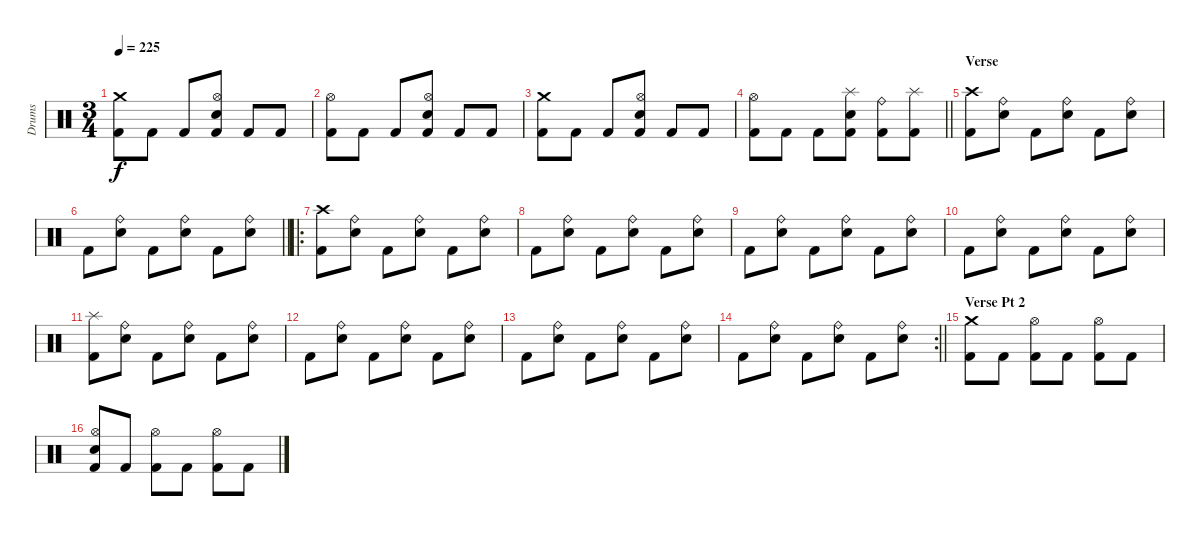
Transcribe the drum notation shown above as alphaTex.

\track ("Drums" "Drums") {instrument percussion}
\staff {score}
\articulation defaults
\ts (3 4)
\tempo 225
\clef neutral
\ks c
("Crash medium (hit)" "Kick (hit) 2").8{dy f} "Kick (hit) 2".8 "Kick (hit) 2".8 ("Hi-Hat (open)" "Electric Snare (hit)" "Kick (hit) 2").8 "Kick (hit) 2".8 "Kick (hit) 2".8 |
("Hi-Hat (open)" "Kick (hit) 2").8 "Kick (hit) 2".8 "Kick (hit) 2".8 ("Hi-Hat (open)" "Electric Snare (hit)" "Kick (hit) 2").8 "Kick (hit) 2".8 "Kick (hit) 2".8 |
("Crash medium (hit)" "Kick (hit) 2").8 "Kick (hit) 2".8 "Kick (hit) 2".8 ("Hi-Hat (open)" "Electric Snare (hit)" "Kick (hit) 2").8 "Kick (hit) 2".8 "Kick (hit) 2".8 |
\barLineRight lightlight
("Hi-Hat (open)" "Kick (hit) 2").8 "Kick (hit) 2".8 "Kick (hit) 2".8 ("Splash (hit)" "Electric Snare (hit)" "Kick (hit) 2").8 ("Ride (bell)" "Kick (hit) 2").8 ("Splash (hit)" "Kick (hit) 2").8 |
\section ("" "Verse")
("Crash high (hit)" "Kick (hit) 2").8 ("Ride (bell)" "Electric Snare (hit)").8 "Kick (hit) 2".8 ("Ride (bell)" "Electric Snare (hit)").8 "Kick (hit) 2".8 ("Ride (bell)" "Electric Snare (hit)").8 |
\barLineRight lightlight "Kick (hit) 2".8
("Ride (bell)" "Electric Snare (hit)").8 "Kick (hit) 2".8 ("Ride (bell)" "Electric Snare (hit)").8 "Kick (hit) 2".8 ("Ride (bell)" "Electric Snare (hit)").8 |
\ro
("Crash high (hit)" "Kick (hit) 2").8 ("Ride (bell)" "Electric Snare (hit)").8 "Kick (hit) 2".8 ("Ride (bell)" "Electric Snare (hit)").8 "Kick (hit) 2".8 ("Ride (bell)" "Electric Snare (hit)").8 |
"Kick (hit) 2".8 ("Ride (bell)" "Electric Snare (hit)").8 "Kick (hit) 2".8 ("Ride (bell)" "Electric Snare (hit)").8 "Kick (hit) 2".8 ("Ride (bell)" "Electric Snare (hit)").8 |
"Kick (hit) 2".8 ("Ride (bell)" "Electric Snare (hit)").8 "Kick (hit) 2".8 ("Ride (bell)" "Electric Snare (hit)").8 "Kick (hit) 2".8 ("Ride (bell)" "Electric Snare (hit)").8 |
"Kick (hit) 2".8 ("Ride (bell)" "Electric Snare (hit)").8 "Kick (hit) 2".8 ("Ride (bell)" "Electric Snare (hit)").8 "Kick (hit) 2".8 ("Ride (bell)" "Electric Snare (hit)").8 |
("Splash (hit)" "Kick (hit) 2").8 ("Ride (bell)" "Electric Snare (hit)").8 "Kick (hit) 2".8 ("Ride (bell)" "Electric Snare (hit)").8 "Kick (hit) 2".8 ("Ride (bell)" "Electric Snare (hit)").8 |
"Kick (hit) 2".8 ("Ride (bell)" "Electric Snare (hit)").8 "Kick (hit) 2".8 ("Ride (bell)" "Electric Snare (hit)").8 "Kick (hit) 2".8 ("Ride (bell)" "Electric Snare (hit)").8 |
"Kick (hit) 2".8 ("Ride (bell)" "Electric Snare (hit)").8 "Kick (hit) 2".8 ("Ride (bell)" "Electric Snare (hit)").8 "Kick (hit) 2".8 ("Ride (bell)" "Electric Snare (hit)").8 |
\rc 2
\barLineRight lightlight "Kick (hit) 2".8
("Ride (bell)" "Electric Snare (hit)").8 "Kick (hit) 2".8 ("Ride (bell)" "Electric Snare (hit)").8 "Kick (hit) 2".8 ("Ride (bell)" "Electric Snare (hit)").8 |
\section ("" "Verse Pt 2")
("Crash medium (hit)" "Kick (hit) 2").8 "Kick (hit) 2".8 ("Hi-Hat (open)" "Kick (hit) 2").8 "Kick (hit) 2".8 ("Hi-Hat (open)" "Kick (hit) 2").8 "Kick (hit) 2".8 |
("Hi-Hat (open)" "Electric Snare (hit)" "Kick (hit) 2").8 "Kick (hit) 2".8 ("Hi-Hat (open)" "Kick (hit) 2").8 "Kick (hit) 2".8 ("Hi-Hat (open)" "Kick (hit) 2").8 "Kick (hit) 2".8
